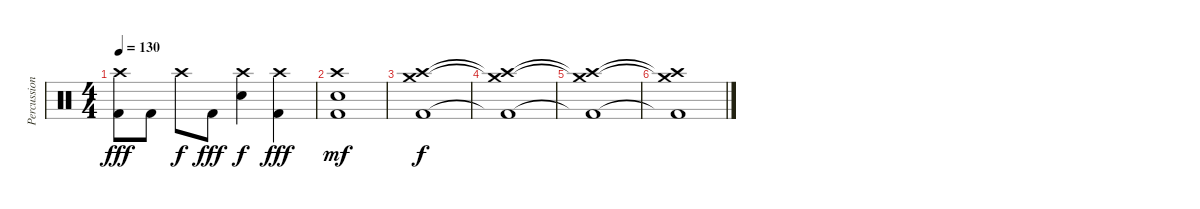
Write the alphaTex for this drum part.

\track ("Percussion" "Percussion") {instrument percussion}
\staff {score}
\articulation defaults
\ts (4 4)
\tempo 130
\clef neutral
\ks c
("Crash high (hit)" "Kick (hit) 2").8{dy fff} "Kick (hit) 2".8 "Crash high (hit)".8{dy f} "Kick (hit) 2".8{dy fff} ("Crash high (hit)" "Electric Snare (hit)").4{dy f} ("Crash high (hit)" "Kick (hit) 2").4{dy fff} |
("Crash high (hit)" "Electric Snare (hit)" "Kick (hit) 2").1{dy mf} |
("Crash high (hit)" "Crash medium (hit)" "Kick (hit) 2").1{dy f} |
("Crash high (hit)"{t} "Crash medium (hit)"{t} "Kick (hit) 2"{t}).1 |
("Crash high (hit)"{t} "Crash medium (hit)"{t} "Kick (hit) 2"{t}).1 |
("Crash high (hit)"{t} "Crash medium (hit)"{t} "Kick (hit) 2"{t}).1
